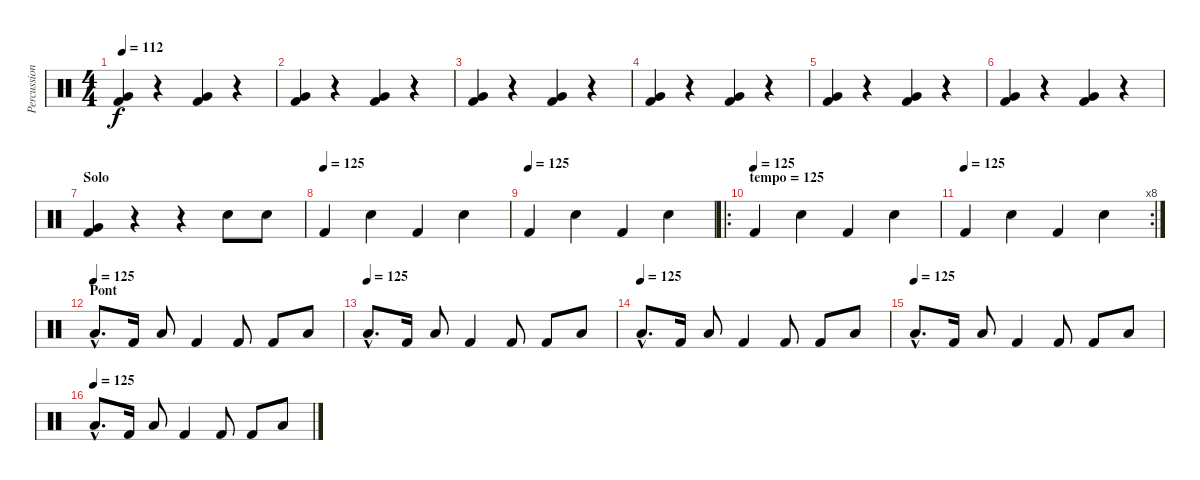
\track ("Percussions" "Percussion") {instrument percussion}
\staff {score}
\articulation defaults
\ts (4 4)
\tempo 112
\clef neutral
\ks c
("Very Low Tom (hit)" "Kick (hit) 2").4{dy f} r.4 ("Very Low Tom (hit)" "Kick (hit) 2").4 r.4 |
("Very Low Tom (hit)" "Kick (hit) 2").4 r.4 ("Very Low Tom (hit)" "Kick (hit) 2").4 r.4 |
("Very Low Tom (hit)" "Kick (hit) 2").4 r.4 ("Very Low Tom (hit)" "Kick (hit) 2").4 r.4 |
("Very Low Tom (hit)" "Kick (hit) 2").4 r.4 ("Very Low Tom (hit)" "Kick (hit) 2").4 r.4 |
("Very Low Tom (hit)" "Kick (hit) 2").4 r.4 ("Very Low Tom (hit)" "Kick (hit) 2").4 r.4 |
("Very Low Tom (hit)" "Kick (hit) 2").4 r.4 ("Very Low Tom (hit)" "Kick (hit) 2").4 r.4 |
\section ("" "Solo")
("Very Low Tom (hit)" "Kick (hit) 2").4 r.4 r.4 "Electric Snare (hit)".8 "Electric Snare (hit)".8 |
\tempo (125)
"Kick (hit) 2".4 "Electric Snare (hit)".4 "Kick (hit) 2".4 "Electric Snare (hit)".4 |
\tempo (125)
"Kick (hit) 2".4 "Electric Snare (hit)".4 "Kick (hit) 2".4 "Electric Snare (hit)".4 |
\ro
\section ("" "tempo = 125")
\tempo (125)
"Kick (hit) 2".4 "Electric Snare (hit)".4 "Kick (hit) 2".4 "Electric Snare (hit)".4 |
\rc 8
\tempo (125)
"Kick (hit) 2".4 "Electric Snare (hit)".4 "Kick (hit) 2".4 "Electric Snare (hit)".4 |
\section ("" "Pont")
\tempo (125)
"Low Tom (hit)"{hac}.8{d} "Kick (hit) 2".16 "Low Tom (hit)".8 "Kick (hit) 2".4 "Kick (hit) 2".8 "Kick (hit) 2".8 "Low Tom (hit)".8 |
\tempo (125)
"Low Tom (hit)"{hac}.8{d} "Kick (hit) 2".16 "Low Tom (hit)".8 "Kick (hit) 2".4 "Kick (hit) 2".8 "Kick (hit) 2".8 "Low Tom (hit)".8 |
\tempo (125)
"Low Tom (hit)"{hac}.8{d} "Kick (hit) 2".16 "Low Tom (hit)".8 "Kick (hit) 2".4 "Kick (hit) 2".8 "Kick (hit) 2".8 "Low Tom (hit)".8 |
\tempo (125)
"Low Tom (hit)"{hac}.8{d} "Kick (hit) 2".16 "Low Tom (hit)".8 "Kick (hit) 2".4 "Kick (hit) 2".8 "Kick (hit) 2".8 "Low Tom (hit)".8 |
\tempo (125)
"Low Tom (hit)"{hac}.8{d} "Kick (hit) 2".16 "Low Tom (hit)".8 "Kick (hit) 2".4 "Kick (hit) 2".8 "Kick (hit) 2".8 "Low Tom (hit)".8
